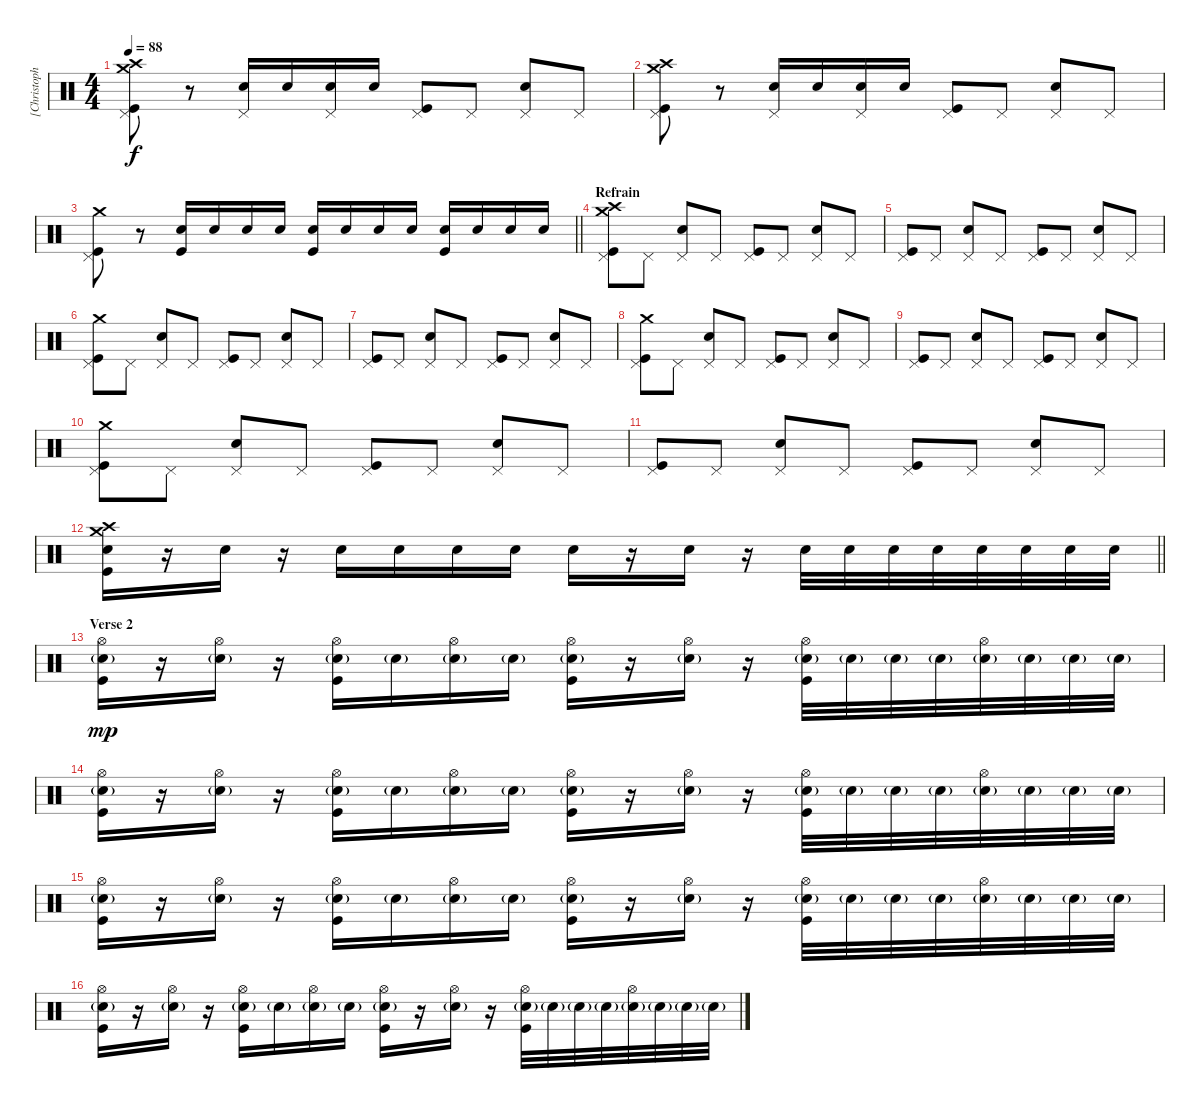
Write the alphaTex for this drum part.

\track ("[Christoph Schneider]  Drums" "[Christoph") {instrument percussion}
\staff {score}
\articulation defaults
\ts (4 4)
\tempo 88
\clef neutral
\ks c
("Crash medium (hit)" "Pedal Hi-Hat (hit)" "Crash high (hit)" "Kick (hit)").8{dy f} r.8 ("Pedal Hi-Hat (hit)" "Electric Snare (hit)").16 "Electric Snare (hit)".16 ("Pedal Hi-Hat (hit)" "Electric Snare (hit)").16 "Electric Snare (hit)".16 ("Pedal Hi-Hat (hit)" "Kick (hit)").8 "Pedal Hi-Hat (hit)".8 ("Pedal Hi-Hat (hit)" "Electric Snare (hit)").8 "Pedal Hi-Hat (hit)".8 |
("Crash medium (hit)" "Pedal Hi-Hat (hit)" "Crash high (hit)" "Kick (hit)").8 r.8 ("Pedal Hi-Hat (hit)" "Electric Snare (hit)").16 "Electric Snare (hit)".16 ("Pedal Hi-Hat (hit)" "Electric Snare (hit)").16 "Electric Snare (hit)".16 ("Pedal Hi-Hat (hit)" "Kick (hit)").8 "Pedal Hi-Hat (hit)".8 ("Pedal Hi-Hat (hit)" "Electric Snare (hit)").8 "Pedal Hi-Hat (hit)".8 |
\barLineRight lightlight
("Crash medium (hit)" "Pedal Hi-Hat (hit)" "Kick (hit)").8 r.8 ("Electric Snare (hit)" "Kick (hit)").16 "Electric Snare (hit)".16 "Electric Snare (hit)".16 "Electric Snare (hit)".16 ("Electric Snare (hit)" "Kick (hit)").16 "Electric Snare (hit)".16 "Electric Snare (hit)".16 "Electric Snare (hit)".16 ("Electric Snare (hit)" "Kick (hit)").16 "Electric Snare (hit)".16 "Electric Snare (hit)".16 "Electric Snare (hit)".16 |
\section ("" "Refrain")
("Crash medium (hit)" "Pedal Hi-Hat (hit)" "Crash high (hit)" "Kick (hit)").8 "Pedal Hi-Hat (hit)".8 ("Pedal Hi-Hat (hit)" "Electric Snare (hit)").8 "Pedal Hi-Hat (hit)".8 ("Pedal Hi-Hat (hit)" "Kick (hit)").8 "Pedal Hi-Hat (hit)".8 ("Pedal Hi-Hat (hit)" "Electric Snare (hit)").8 "Pedal Hi-Hat (hit)".8 |
("Pedal Hi-Hat (hit)" "Kick (hit)").8 "Pedal Hi-Hat (hit)".8 ("Pedal Hi-Hat (hit)" "Electric Snare (hit)").8 "Pedal Hi-Hat (hit)".8 ("Pedal Hi-Hat (hit)" "Kick (hit)").8 "Pedal Hi-Hat (hit)".8 ("Pedal Hi-Hat (hit)" "Electric Snare (hit)").8 "Pedal Hi-Hat (hit)".8 |
("Crash medium (hit)" "Pedal Hi-Hat (hit)" "Kick (hit)").8 "Pedal Hi-Hat (hit)".8 ("Pedal Hi-Hat (hit)" "Electric Snare (hit)").8 "Pedal Hi-Hat (hit)".8 ("Pedal Hi-Hat (hit)" "Kick (hit)").8 "Pedal Hi-Hat (hit)".8 ("Pedal Hi-Hat (hit)" "Electric Snare (hit)").8 "Pedal Hi-Hat (hit)".8 |
("Pedal Hi-Hat (hit)" "Kick (hit)").8 "Pedal Hi-Hat (hit)".8 ("Pedal Hi-Hat (hit)" "Electric Snare (hit)").8 "Pedal Hi-Hat (hit)".8 ("Pedal Hi-Hat (hit)" "Kick (hit)").8 "Pedal Hi-Hat (hit)".8 ("Pedal Hi-Hat (hit)" "Electric Snare (hit)").8 "Pedal Hi-Hat (hit)".8 |
("Crash medium (hit)" "Pedal Hi-Hat (hit)" "Kick (hit)").8 "Pedal Hi-Hat (hit)".8 ("Pedal Hi-Hat (hit)" "Electric Snare (hit)").8 "Pedal Hi-Hat (hit)".8 ("Pedal Hi-Hat (hit)" "Kick (hit)").8 "Pedal Hi-Hat (hit)".8 ("Pedal Hi-Hat (hit)" "Electric Snare (hit)").8 "Pedal Hi-Hat (hit)".8 |
("Pedal Hi-Hat (hit)" "Kick (hit)").8 "Pedal Hi-Hat (hit)".8 ("Pedal Hi-Hat (hit)" "Electric Snare (hit)").8 "Pedal Hi-Hat (hit)".8 ("Pedal Hi-Hat (hit)" "Kick (hit)").8 "Pedal Hi-Hat (hit)".8 ("Pedal Hi-Hat (hit)" "Electric Snare (hit)").8 "Pedal Hi-Hat (hit)".8 |
("Crash medium (hit)" "Pedal Hi-Hat (hit)" "Kick (hit)").8 "Pedal Hi-Hat (hit)".8 ("Pedal Hi-Hat (hit)" "Electric Snare (hit)").8 "Pedal Hi-Hat (hit)".8 ("Pedal Hi-Hat (hit)" "Kick (hit)").8 "Pedal Hi-Hat (hit)".8 ("Pedal Hi-Hat (hit)" "Electric Snare (hit)").8 "Pedal Hi-Hat (hit)".8 |
("Pedal Hi-Hat (hit)" "Kick (hit)").8 "Pedal Hi-Hat (hit)".8 ("Pedal Hi-Hat (hit)" "Electric Snare (hit)").8 "Pedal Hi-Hat (hit)".8 ("Pedal Hi-Hat (hit)" "Kick (hit)").8 "Pedal Hi-Hat (hit)".8 ("Pedal Hi-Hat (hit)" "Electric Snare (hit)").8 "Pedal Hi-Hat (hit)".8 |
\barLineRight lightlight
("Crash medium (hit)" "Crash high (hit)" "Kick (hit)" "Electric Snare (hit)").16 r.16 "Electric Snare (hit)".16 r.16 "Electric Snare (hit)".16 "Electric Snare (hit)".16 "Electric Snare (hit)".16 "Electric Snare (hit)".16 "Electric Snare (hit)".16 r.16 "Electric Snare (hit)".16 r.16 "Electric Snare (hit)".32 "Electric Snare (hit)".32 "Electric Snare (hit)".32 "Electric Snare (hit)".32 "Electric Snare (hit)".32 "Electric Snare (hit)".32 "Electric Snare (hit)".32 "Electric Snare (hit)".32 |
\section ("" "Verse 2")
("Hi-Hat (open)" "Kick (hit)" "Electric Snare (hit)"{g}).16{dy mp} r.16 ("Hi-Hat (open)" "Electric Snare (hit)"{g}).16 r.16 ("Hi-Hat (open)" "Kick (hit)" "Electric Snare (hit)"{g}).16 "Electric Snare (hit)"{g}.16 ("Hi-Hat (open)" "Electric Snare (hit)"{g}).16 "Electric Snare (hit)"{g}.16 ("Hi-Hat (open)" "Kick (hit)" "Electric Snare (hit)"{g}).16 r.16 ("Hi-Hat (open)" "Electric Snare (hit)"{g}).16 r.16 ("Hi-Hat (open)" "Kick (hit)" "Electric Snare (hit)"{g}).32 "Electric Snare (hit)"{g}.32 "Electric Snare (hit)"{g}.32 "Electric Snare (hit)"{g}.32 ("Hi-Hat (open)" "Electric Snare (hit)"{g}).32 "Electric Snare (hit)"{g}.32 "Electric Snare (hit)"{g}.32 "Electric Snare (hit)"{g}.32 |
("Hi-Hat (open)" "Kick (hit)" "Electric Snare (hit)"{g}).16 r.16 ("Hi-Hat (open)" "Electric Snare (hit)"{g}).16 r.16 ("Hi-Hat (open)" "Kick (hit)" "Electric Snare (hit)"{g}).16 "Electric Snare (hit)"{g}.16 ("Hi-Hat (open)" "Electric Snare (hit)"{g}).16 "Electric Snare (hit)"{g}.16 ("Hi-Hat (open)" "Kick (hit)" "Electric Snare (hit)"{g}).16 r.16 ("Hi-Hat (open)" "Electric Snare (hit)"{g}).16 r.16 ("Hi-Hat (open)" "Kick (hit)" "Electric Snare (hit)"{g}).32 "Electric Snare (hit)"{g}.32 "Electric Snare (hit)"{g}.32 "Electric Snare (hit)"{g}.32 ("Hi-Hat (open)" "Electric Snare (hit)"{g}).32 "Electric Snare (hit)"{g}.32 "Electric Snare (hit)"{g}.32 "Electric Snare (hit)"{g}.32 |
("Hi-Hat (open)" "Kick (hit)" "Electric Snare (hit)"{g}).16 r.16 ("Hi-Hat (open)" "Electric Snare (hit)"{g}).16 r.16 ("Hi-Hat (open)" "Kick (hit)" "Electric Snare (hit)"{g}).16 "Electric Snare (hit)"{g}.16 ("Hi-Hat (open)" "Electric Snare (hit)"{g}).16 "Electric Snare (hit)"{g}.16 ("Hi-Hat (open)" "Kick (hit)" "Electric Snare (hit)"{g}).16 r.16 ("Hi-Hat (open)" "Electric Snare (hit)"{g}).16 r.16 ("Hi-Hat (open)" "Kick (hit)" "Electric Snare (hit)"{g}).32 "Electric Snare (hit)"{g}.32 "Electric Snare (hit)"{g}.32 "Electric Snare (hit)"{g}.32 ("Hi-Hat (open)" "Electric Snare (hit)"{g}).32 "Electric Snare (hit)"{g}.32 "Electric Snare (hit)"{g}.32 "Electric Snare (hit)"{g}.32 |
("Hi-Hat (open)" "Kick (hit)" "Electric Snare (hit)"{g}).16 r.16 ("Hi-Hat (open)" "Electric Snare (hit)"{g}).16 r.16 ("Hi-Hat (open)" "Kick (hit)" "Electric Snare (hit)"{g}).16 "Electric Snare (hit)"{g}.16 ("Hi-Hat (open)" "Electric Snare (hit)"{g}).16 "Electric Snare (hit)"{g}.16 ("Hi-Hat (open)" "Kick (hit)" "Electric Snare (hit)"{g}).16 r.16 ("Hi-Hat (open)" "Electric Snare (hit)"{g}).16 r.16 ("Hi-Hat (open)" "Kick (hit)" "Electric Snare (hit)"{g}).32 "Electric Snare (hit)"{g}.32 "Electric Snare (hit)"{g}.32 "Electric Snare (hit)"{g}.32 ("Hi-Hat (open)" "Electric Snare (hit)"{g}).32 "Electric Snare (hit)"{g}.32 "Electric Snare (hit)"{g}.32 "Electric Snare (hit)"{g}.32
